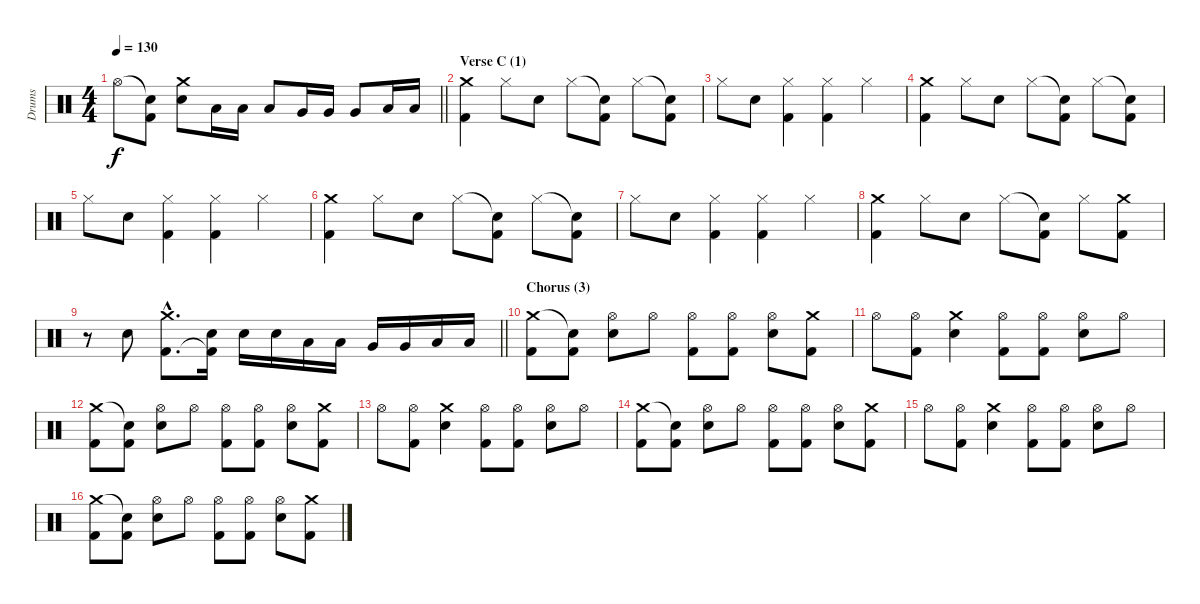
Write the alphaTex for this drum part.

\track ("Drums" "Drums") {instrument percussion}
\staff {score}
\articulation defaults
\ts (4 4)
\tempo 130
\clef neutral
\barLineRight lightlight
\ks c "Hi-Hat (open)".8{dy f}
("Snare (hit)"{t} "Kick (hit) 2").8 ("Crash medium (hit)" "Electric Snare (hit)").8 "Low Tom (hit)".16 "Low Tom (hit)".16 "Low Tom (hit)".8 "Very Low Tom (hit)".16 "Very Low Tom (hit)".16 "Very Low Tom (hit)".8 "Low Floor Tom (hit)".16 "Low Floor Tom (hit)".16 |
\section ("" "Verse C (1)")
("Crash medium (hit)" "Kick (hit) 2").4 "Hi-Hat (closed)".8 "Electric Snare (hit)".8 "Hi-Hat (closed)".8 ("Snare (hit)"{t} "Kick (hit) 2").8 "Hi-Hat (closed)".8 ("Snare (hit)"{t} "Kick (hit) 2").8 |
"Hi-Hat (closed)".8 "Electric Snare (hit)".8 ("Hi-Hat (closed)" "Kick (hit) 2").4 ("Hi-Hat (closed)" "Kick (hit) 2").4 "Hi-Hat (closed)".4 |
("Crash medium (hit)" "Kick (hit) 2").4 "Hi-Hat (closed)".8 "Electric Snare (hit)".8 "Hi-Hat (closed)".8 ("Snare (hit)"{t} "Kick (hit) 2").8 "Hi-Hat (closed)".8 ("Snare (hit)"{t} "Kick (hit) 2").8 |
"Hi-Hat (closed)".8 "Electric Snare (hit)".8 ("Hi-Hat (closed)" "Kick (hit) 2").4 ("Hi-Hat (closed)" "Kick (hit) 2").4 "Hi-Hat (closed)".4 |
("Crash medium (hit)" "Kick (hit) 2").4 "Hi-Hat (closed)".8 "Electric Snare (hit)".8 "Hi-Hat (closed)".8 ("Snare (hit)"{t} "Kick (hit) 2").8 "Hi-Hat (closed)".8 ("Snare (hit)"{t} "Kick (hit) 2").8 |
"Hi-Hat (closed)".8 "Electric Snare (hit)".8 ("Hi-Hat (closed)" "Kick (hit) 2").4 ("Hi-Hat (closed)" "Kick (hit) 2").4 "Hi-Hat (closed)".4 |
("Crash medium (hit)" "Kick (hit) 2").4 "Hi-Hat (closed)".8 "Electric Snare (hit)".8 "Hi-Hat (closed)".8 ("Snare (hit)"{t} "Kick (hit) 2").8 "Hi-Hat (closed)".8 ("Crash medium (hit)" "Kick (hit) 2").8 |
\barLineRight lightlight
r.8 "Electric Snare (hit)".8 ("Crash medium (hit)"{hac} "Kick (hit) 2"{hac}).8{d} ("Electric Snare (hit)" "Kick (hit) 2"{t}).16 "Electric Snare (hit)".16 "Electric Snare (hit)".16 "Low Tom (hit)".16 "Low Tom (hit)".16 "Very Low Tom (hit)".16 "Very Low Tom (hit)".16 "Low Floor Tom (hit)".16 "Low Floor Tom (hit)".16 |
\section ("" "Chorus (3)")
("Crash medium (hit)" "Kick (hit) 2").8 ("Snare (hit)"{t} "Kick (hit) 2").8 ("Hi-Hat (open)" "Electric Snare (hit)").8 "Hi-Hat (open)".8 ("Hi-Hat (open)" "Kick (hit) 2").8 ("Hi-Hat (open)" "Kick (hit) 2").8 ("Hi-Hat (open)" "Electric Snare (hit)").8 ("Crash medium (hit)" "Kick (hit) 2").8 |
"Hi-Hat (open)".8 ("Hi-Hat (open)" "Kick (hit) 2").8 ("Crash medium (hit)" "Electric Snare (hit)").4 ("Hi-Hat (open)" "Kick (hit) 2").8 ("Hi-Hat (open)" "Kick (hit) 2").8 ("Hi-Hat (open)" "Electric Snare (hit)").8 "Hi-Hat (open)".8 |
("Crash medium (hit)" "Kick (hit) 2").8 ("Snare (hit)"{t} "Kick (hit) 2").8 ("Hi-Hat (open)" "Electric Snare (hit)").8 "Hi-Hat (open)".8 ("Hi-Hat (open)" "Kick (hit) 2").8 ("Hi-Hat (open)" "Kick (hit) 2").8 ("Hi-Hat (open)" "Electric Snare (hit)").8 ("Crash medium (hit)" "Kick (hit) 2").8 |
"Hi-Hat (open)".8 ("Hi-Hat (open)" "Kick (hit) 2").8 ("Crash medium (hit)" "Electric Snare (hit)").4 ("Hi-Hat (open)" "Kick (hit) 2").8 ("Hi-Hat (open)" "Kick (hit) 2").8 ("Hi-Hat (open)" "Electric Snare (hit)").8 "Hi-Hat (open)".8 |
("Crash medium (hit)" "Kick (hit) 2").8 ("Snare (hit)"{t} "Kick (hit) 2").8 ("Hi-Hat (open)" "Electric Snare (hit)").8 "Hi-Hat (open)".8 ("Hi-Hat (open)" "Kick (hit) 2").8 ("Hi-Hat (open)" "Kick (hit) 2").8 ("Hi-Hat (open)" "Electric Snare (hit)").8 ("Crash medium (hit)" "Kick (hit) 2").8 |
"Hi-Hat (open)".8 ("Hi-Hat (open)" "Kick (hit) 2").8 ("Crash medium (hit)" "Electric Snare (hit)").4 ("Hi-Hat (open)" "Kick (hit) 2").8 ("Hi-Hat (open)" "Kick (hit) 2").8 ("Hi-Hat (open)" "Electric Snare (hit)").8 "Hi-Hat (open)".8 |
("Crash medium (hit)" "Kick (hit) 2").8 ("Snare (hit)"{t} "Kick (hit) 2").8 ("Hi-Hat (open)" "Electric Snare (hit)").8 "Hi-Hat (open)".8 ("Hi-Hat (open)" "Kick (hit) 2").8 ("Hi-Hat (open)" "Kick (hit) 2").8 ("Hi-Hat (open)" "Electric Snare (hit)").8 ("Crash medium (hit)" "Kick (hit) 2").8
